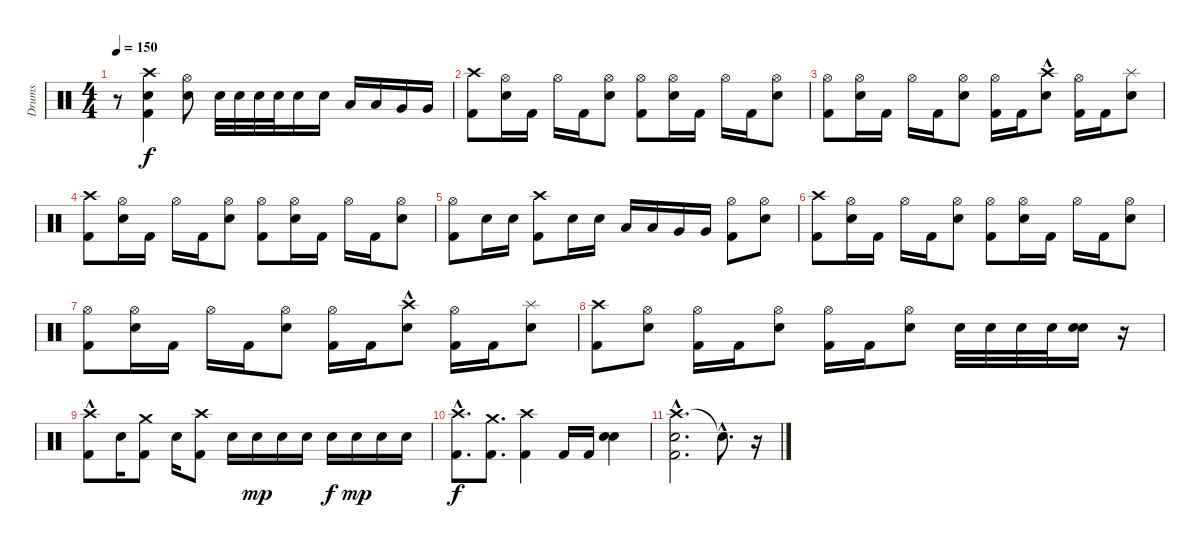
\track ("Drums" "Drums") {instrument percussion}
\staff {score}
\articulation defaults
\ts (4 4)
\tempo 150
\clef neutral
\ks c
r.8{dy f} ("Crash high (hit)" "Kick (hit) 2" "Electric Snare (hit)").4 ("Electric Snare (hit)" "Hi-Hat (open)").8 "Electric Snare (hit)".32 "Electric Snare (hit)".32 "Electric Snare (hit)".32 "Electric Snare (hit)".32 "Electric Snare (hit)".16 "Electric Snare (hit)".16 "Low Tom (hit)".16 "Low Tom (hit)".16 "Very Low Tom (hit)".16 "Very Low Tom (hit)".16 |
("Crash high (hit)" "Kick (hit) 2").8 ("Electric Snare (hit)" "Hi-Hat (open)").16 "Kick (hit) 2".16 "Hi-Hat (open)".16 "Kick (hit) 2".16 ("Electric Snare (hit)" "Hi-Hat (open)").8 ("Kick (hit) 2" "Hi-Hat (open)").8 ("Electric Snare (hit)" "Hi-Hat (open)").16 "Kick (hit) 2".16 "Hi-Hat (open)".16 "Kick (hit) 2".16 ("Electric Snare (hit)" "Hi-Hat (open)").8 |
("Kick (hit) 2" "Hi-Hat (open)").8 ("Electric Snare (hit)" "Hi-Hat (open)").16 "Kick (hit) 2".16 "Hi-Hat (open)".16 "Kick (hit) 2".16 ("Electric Snare (hit)" "Hi-Hat (open)").8 ("Kick (hit) 2" "Hi-Hat (open)").16 "Kick (hit) 2".16 ("Electric Snare (hit)" "Crash high (hit)"{hac}).8 ("Hi-Hat (open)" "Kick (hit) 2").16 "Kick (hit) 2".16 ("Electric Snare (hit)" "Splash (hit)").8 |
("Crash high (hit)" "Kick (hit) 2").8 ("Electric Snare (hit)" "Hi-Hat (open)").16 "Kick (hit) 2".16 "Hi-Hat (open)".16 "Kick (hit) 2".16 ("Electric Snare (hit)" "Hi-Hat (open)").8 ("Kick (hit) 2" "Hi-Hat (open)").8 ("Electric Snare (hit)" "Hi-Hat (open)").16 "Kick (hit) 2".16 "Hi-Hat (open)".16 "Kick (hit) 2".16 ("Electric Snare (hit)" "Hi-Hat (open)").8 |
("Kick (hit) 2" "Hi-Hat (open)").8 "Electric Snare (hit)".16 "Electric Snare (hit)".16 ("Kick (hit) 2" "Crash high (hit)").8 "Electric Snare (hit)".16 "Electric Snare (hit)".16 "Low Tom (hit)".16 "Low Tom (hit)".16 "Very Low Tom (hit)".16 "Very Low Tom (hit)".16 ("Kick (hit) 2" "Hi-Hat (open)").8 ("Electric Snare (hit)" "Hi-Hat (open)").8 |
("Crash high (hit)" "Kick (hit) 2").8 ("Electric Snare (hit)" "Hi-Hat (open)").16 "Kick (hit) 2".16 "Hi-Hat (open)".16 "Kick (hit) 2".16 ("Electric Snare (hit)" "Hi-Hat (open)").8 ("Kick (hit) 2" "Hi-Hat (open)").8 ("Electric Snare (hit)" "Hi-Hat (open)").16 "Kick (hit) 2".16 "Hi-Hat (open)".16 "Kick (hit) 2".16 ("Electric Snare (hit)" "Hi-Hat (open)").8 |
("Kick (hit) 2" "Hi-Hat (open)").8 ("Electric Snare (hit)" "Hi-Hat (open)").16 "Kick (hit) 2".16 "Hi-Hat (open)".16 "Kick (hit) 2".16 ("Electric Snare (hit)" "Hi-Hat (open)").8 ("Kick (hit) 2" "Hi-Hat (open)").16 "Kick (hit) 2".16 ("Electric Snare (hit)" "Crash high (hit)"{hac}).8 ("Hi-Hat (open)" "Kick (hit) 2").16 "Kick (hit) 2".16 ("Electric Snare (hit)" "Splash (hit)").8 |
("Crash high (hit)" "Kick (hit) 2").8 ("Electric Snare (hit)" "Hi-Hat (open)").8 ("Hi-Hat (open)" "Kick (hit) 2").16 "Kick (hit) 2".16 ("Electric Snare (hit)" "Hi-Hat (open)").8 ("Kick (hit) 2" "Hi-Hat (open)").16 "Kick (hit) 2".16 ("Electric Snare (hit)" "Hi-Hat (open)").8 "Electric Snare (hit)".32 "Electric Snare (hit)".32 "Electric Snare (hit)".32 "Electric Snare (hit)".32 ("Electric Snare (hit)" "Electric Snare (hit)").16 r.16 |
("Kick (hit) 2" "Crash high (hit)"{hac}).8 "Electric Snare (hit)".16 ("Kick (hit) 2" "Crash medium (hit)").8 "Electric Snare (hit)".16 ("Kick (hit) 2" "Crash high (hit)").8 "Electric Snare (hit)".16 "Electric Snare (hit)".16{dy mp} "Electric Snare (hit)".16 "Electric Snare (hit)".16 "Electric Snare (hit)".16{dy f} "Electric Snare (hit)".16{dy mp} "Electric Snare (hit)".16 "Electric Snare (hit)".16 |
("Kick (hit) 2" "Crash high (hit)"{hac}).8{d dy f} ("Kick (hit) 2" "Crash medium (hit)").8{d} ("Kick (hit) 2" "Crash high (hit)").4 "Kick (hit) 2".16 "Kick (hit) 2".16 ("Electric Snare (hit)" "Electric Snare (hit)").4 |
("Crash high (hit)" "Electric Snare (hit)"{hac} "Kick (hit) 2").2{d} "Snare (hit)"{hac t}.8{d} r.16
